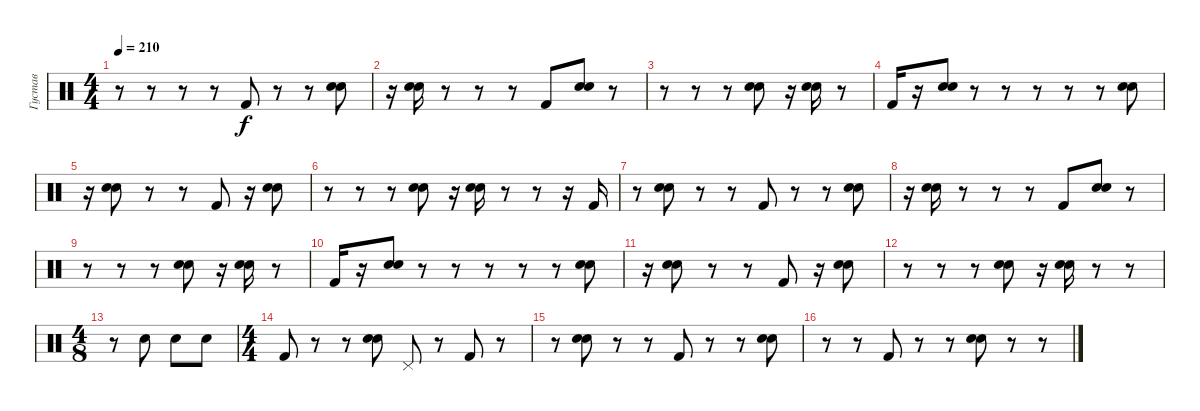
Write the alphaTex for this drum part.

\track ("Густав" "Густав") {instrument percussion}
\staff {score}
\articulation defaults
\ts (4 4)
\tempo 210
\clef neutral
\ks c
r.8{dy f} r.8 r.8 r.8 "Kick (hit) 2".8 r.8 r.8 ("Snare (hit) 2" "Electric Snare (hit)").8 |
r.16 ("Snare (hit) 2" "Electric Snare (hit)").16 r.8 r.8 r.8 "Kick (hit) 2".8 ("Snare (hit) 2" "Electric Snare (hit)").8 r.8 |
r.8 r.8 r.8 ("Snare (hit) 2" "Electric Snare (hit)").8 r.16 ("Snare (hit) 2" "Electric Snare (hit)").16 r.8 |
"Kick (hit) 2".16 r.16 ("Snare (hit) 2" "Electric Snare (hit)").8 r.8 r.8 r.8 r.8 r.8 ("Snare (hit) 2" "Electric Snare (hit)").8 |
r.16 ("Snare (hit) 2" "Electric Snare (hit)").8 r.8 r.8 "Kick (hit) 2".8 r.16 ("Snare (hit) 2" "Electric Snare (hit)").8 |
r.8 r.8 r.8 ("Snare (hit) 2" "Electric Snare (hit)").8 r.16 ("Snare (hit) 2" "Electric Snare (hit)").16 r.8 r.8 r.16 "Kick (hit) 2".16 |
r.8 ("Snare (hit) 2" "Electric Snare (hit)").8 r.8 r.8 "Kick (hit) 2".8 r.8 r.8 ("Snare (hit) 2" "Electric Snare (hit)").8 |
r.16 ("Snare (hit) 2" "Electric Snare (hit)").16 r.8 r.8 r.8 "Kick (hit) 2".8 ("Snare (hit) 2" "Electric Snare (hit)").8 r.8 |
r.8 r.8 r.8 ("Snare (hit) 2" "Electric Snare (hit)").8 r.16 ("Snare (hit) 2" "Electric Snare (hit)").16 r.8 |
"Kick (hit) 2".16 r.16 ("Snare (hit) 2" "Electric Snare (hit)").8 r.8 r.8 r.8 r.8 r.8 ("Snare (hit) 2" "Electric Snare (hit)").8 |
r.16 ("Snare (hit) 2" "Electric Snare (hit)").8 r.8 r.8 "Kick (hit) 2".8 r.16 ("Snare (hit) 2" "Electric Snare (hit)").8 |
r.8 r.8 r.8 ("Snare (hit) 2" "Electric Snare (hit)").8 r.16 ("Snare (hit) 2" "Electric Snare (hit)").16 r.8 r.8 |
\ts (4 8)
r.8 "Snare (hit) 2".8 "Snare (hit) 2".8 "Snare (hit) 2".8 |
\ts (4 4)
"Kick (hit) 2".8 r.8 r.8 ("Electric Snare (hit)" "Snare (hit) 2").8 "Pedal Hi-Hat (hit)".8 r.8 "Kick (hit) 2".8 r.8 |
r.8 ("Electric Snare (hit)" "Snare (hit) 2").8 r.8 r.8 "Kick (hit) 2".8 r.8 r.8 ("Electric Snare (hit)" "Snare (hit) 2").8 |
r.8 r.8 "Kick (hit) 2".8 r.8 r.8 ("Electric Snare (hit)" "Snare (hit) 2").8 r.8 r.8
